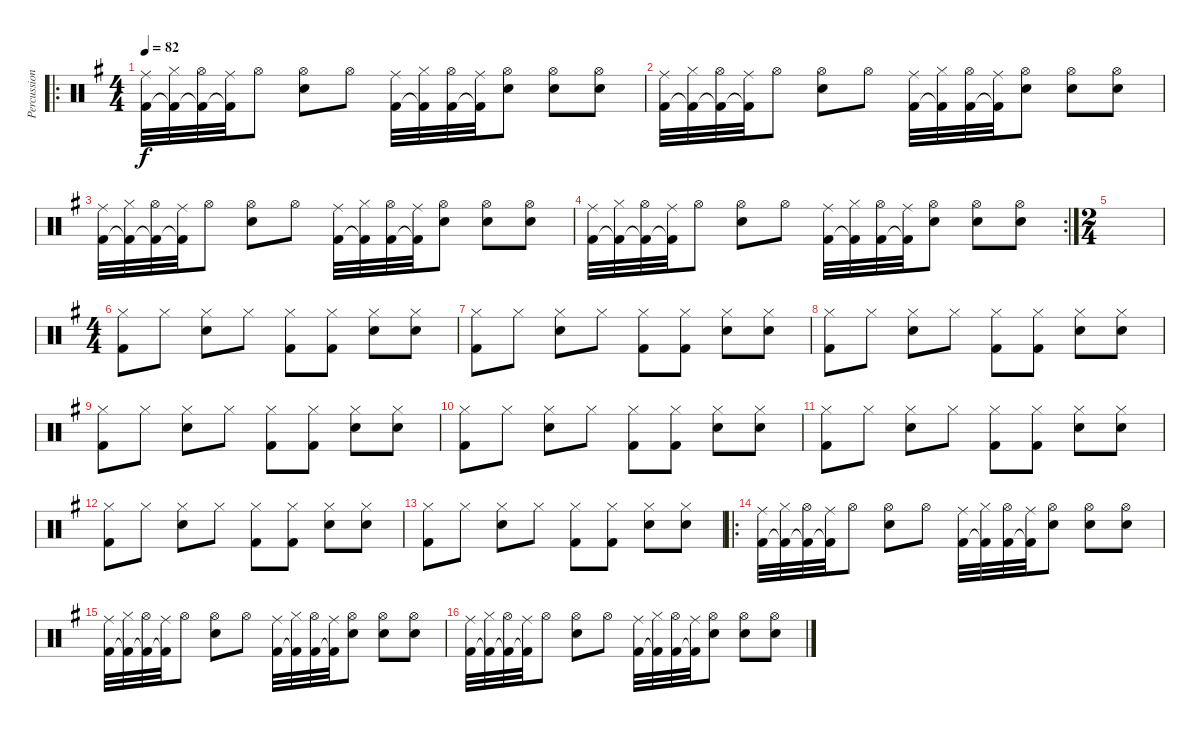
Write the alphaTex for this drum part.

\track ("Percussions" "Percussion") {instrument percussion}
\staff {score}
\articulation defaults
\ro
\ts (4 4)
\tempo 82
\clef neutral
\ks g
("Ride (middle)" "Kick (hit) 2").32{dy f} ("Hi-Hat (closed)" "Kick (hit) 2"{t}).32 ("Hi-Hat (open)" "Kick (hit) 2"{t}).32 ("Ride (middle)" "Kick (hit) 2"{t}).32 "Hi-Hat (open)".8 ("Hi-Hat (open)" "Snare (hit) 2").8 "Hi-Hat (open)".8 ("Ride (middle)" "Kick (hit) 2").32 ("Hi-Hat (closed)" "Kick (hit) 2"{t}).32 ("Hi-Hat (open)" "Kick (hit) 2").32 ("Ride (middle)" "Kick (hit) 2"{t}).32 ("Hi-Hat (open)" "Snare (hit) 2").8 ("Hi-Hat (open)" "Snare (hit) 2").8 ("Hi-Hat (open)" "Snare (hit) 2").8 |
("Ride (middle)" "Kick (hit) 2").32 ("Hi-Hat (closed)" "Kick (hit) 2"{t}).32 ("Hi-Hat (open)" "Kick (hit) 2"{t}).32 ("Ride (middle)" "Kick (hit) 2"{t}).32 "Hi-Hat (open)".8 ("Hi-Hat (open)" "Snare (hit) 2").8 "Hi-Hat (open)".8 ("Ride (middle)" "Kick (hit) 2").32 ("Hi-Hat (closed)" "Kick (hit) 2"{t}).32 ("Hi-Hat (open)" "Kick (hit) 2").32 ("Ride (middle)" "Kick (hit) 2"{t}).32 ("Hi-Hat (open)" "Snare (hit) 2").8 ("Hi-Hat (open)" "Snare (hit) 2").8 ("Hi-Hat (open)" "Snare (hit) 2").8 |
("Ride (middle)" "Kick (hit) 2").32 ("Hi-Hat (closed)" "Kick (hit) 2"{t}).32 ("Hi-Hat (open)" "Kick (hit) 2"{t}).32 ("Ride (middle)" "Kick (hit) 2"{t}).32 "Hi-Hat (open)".8 ("Hi-Hat (open)" "Snare (hit) 2").8 "Hi-Hat (open)".8 ("Ride (middle)" "Kick (hit) 2").32 ("Hi-Hat (closed)" "Kick (hit) 2"{t}).32 ("Hi-Hat (open)" "Kick (hit) 2").32 ("Ride (middle)" "Kick (hit) 2"{t}).32 ("Hi-Hat (open)" "Snare (hit) 2").8 ("Hi-Hat (open)" "Snare (hit) 2").8 ("Hi-Hat (open)" "Snare (hit) 2").8 |
\rc 2
("Ride (middle)" "Kick (hit) 2").32 ("Hi-Hat (closed)" "Kick (hit) 2"{t}).32 ("Hi-Hat (open)" "Kick (hit) 2"{t}).32 ("Ride (middle)" "Kick (hit) 2"{t}).32 "Hi-Hat (open)".8 ("Hi-Hat (open)" "Snare (hit) 2").8 "Hi-Hat (open)".8 ("Ride (middle)" "Kick (hit) 2").32 ("Hi-Hat (closed)" "Kick (hit) 2"{t}).32 ("Hi-Hat (open)" "Kick (hit) 2").32 ("Ride (middle)" "Kick (hit) 2"{t}).32 ("Hi-Hat (open)" "Snare (hit) 2").8 ("Hi-Hat (open)" "Snare (hit) 2").8 ("Hi-Hat (open)" "Snare (hit) 2").8 |
\ts (2 4)
|
\ts (4 4)
("Hi-Hat (closed)" "Kick (hit) 2").8 "Hi-Hat (closed)".8 ("Hi-Hat (closed)" "Snare (hit) 2").8 "Hi-Hat (closed)".8 ("Hi-Hat (closed)" "Kick (hit) 2").8 ("Hi-Hat (closed)" "Kick (hit) 2").8 ("Hi-Hat (closed)" "Snare (hit) 2").8 ("Hi-Hat (closed)" "Snare (hit) 2").8 |
("Hi-Hat (closed)" "Kick (hit) 2").8 "Hi-Hat (closed)".8 ("Hi-Hat (closed)" "Snare (hit) 2").8 "Hi-Hat (closed)".8 ("Hi-Hat (closed)" "Kick (hit) 2").8 ("Hi-Hat (closed)" "Kick (hit) 2").8 ("Hi-Hat (closed)" "Snare (hit) 2").8 ("Hi-Hat (closed)" "Snare (hit) 2").8 |
("Hi-Hat (closed)" "Kick (hit) 2").8 "Hi-Hat (closed)".8 ("Hi-Hat (closed)" "Snare (hit) 2").8 "Hi-Hat (closed)".8 ("Hi-Hat (closed)" "Kick (hit) 2").8 ("Hi-Hat (closed)" "Kick (hit) 2").8 ("Hi-Hat (closed)" "Snare (hit) 2").8 ("Hi-Hat (closed)" "Snare (hit) 2").8 |
("Hi-Hat (closed)" "Kick (hit) 2").8 "Hi-Hat (closed)".8 ("Hi-Hat (closed)" "Snare (hit) 2").8 "Hi-Hat (closed)".8 ("Hi-Hat (closed)" "Kick (hit) 2").8 ("Hi-Hat (closed)" "Kick (hit) 2").8 ("Hi-Hat (closed)" "Snare (hit) 2").8 ("Hi-Hat (closed)" "Snare (hit) 2").8 |
("Hi-Hat (closed)" "Kick (hit) 2").8 "Hi-Hat (closed)".8 ("Hi-Hat (closed)" "Snare (hit) 2").8 "Hi-Hat (closed)".8 ("Hi-Hat (closed)" "Kick (hit) 2").8 ("Hi-Hat (closed)" "Kick (hit) 2").8 ("Hi-Hat (closed)" "Snare (hit) 2").8 ("Hi-Hat (closed)" "Snare (hit) 2").8 |
("Hi-Hat (closed)" "Kick (hit) 2").8 "Hi-Hat (closed)".8 ("Hi-Hat (closed)" "Snare (hit) 2").8 "Hi-Hat (closed)".8 ("Hi-Hat (closed)" "Kick (hit) 2").8 ("Hi-Hat (closed)" "Kick (hit) 2").8 ("Hi-Hat (closed)" "Snare (hit) 2").8 ("Hi-Hat (closed)" "Snare (hit) 2").8 |
("Hi-Hat (closed)" "Kick (hit) 2").8 "Hi-Hat (closed)".8 ("Hi-Hat (closed)" "Snare (hit) 2").8 "Hi-Hat (closed)".8 ("Hi-Hat (closed)" "Kick (hit) 2").8 ("Hi-Hat (closed)" "Kick (hit) 2").8 ("Hi-Hat (closed)" "Snare (hit) 2").8 ("Hi-Hat (closed)" "Snare (hit) 2").8 |
("Hi-Hat (closed)" "Kick (hit) 2").8 "Hi-Hat (closed)".8 ("Hi-Hat (closed)" "Snare (hit) 2").8 "Hi-Hat (closed)".8 ("Hi-Hat (closed)" "Kick (hit) 2").8 ("Hi-Hat (closed)" "Kick (hit) 2").8 ("Hi-Hat (closed)" "Snare (hit) 2").8 ("Hi-Hat (closed)" "Snare (hit) 2").8 |
\ro
("Ride (middle)" "Kick (hit) 2").32 ("Hi-Hat (closed)" "Kick (hit) 2"{t}).32 ("Hi-Hat (open)" "Kick (hit) 2"{t}).32 ("Ride (middle)" "Kick (hit) 2"{t}).32 "Hi-Hat (open)".8 ("Hi-Hat (open)" "Snare (hit) 2").8 "Hi-Hat (open)".8 ("Ride (middle)" "Kick (hit) 2").32 ("Hi-Hat (closed)" "Kick (hit) 2"{t}).32 ("Hi-Hat (open)" "Kick (hit) 2").32 ("Ride (middle)" "Kick (hit) 2"{t}).32 ("Hi-Hat (open)" "Snare (hit) 2").8 ("Hi-Hat (open)" "Snare (hit) 2").8 ("Hi-Hat (open)" "Snare (hit) 2").8 |
("Ride (middle)" "Kick (hit) 2").32 ("Hi-Hat (closed)" "Kick (hit) 2"{t}).32 ("Hi-Hat (open)" "Kick (hit) 2"{t}).32 ("Ride (middle)" "Kick (hit) 2"{t}).32 "Hi-Hat (open)".8 ("Hi-Hat (open)" "Snare (hit) 2").8 "Hi-Hat (open)".8 ("Ride (middle)" "Kick (hit) 2").32 ("Hi-Hat (closed)" "Kick (hit) 2"{t}).32 ("Hi-Hat (open)" "Kick (hit) 2").32 ("Ride (middle)" "Kick (hit) 2"{t}).32 ("Hi-Hat (open)" "Snare (hit) 2").8 ("Hi-Hat (open)" "Snare (hit) 2").8 ("Hi-Hat (open)" "Snare (hit) 2").8 |
("Ride (middle)" "Kick (hit) 2").32 ("Hi-Hat (closed)" "Kick (hit) 2"{t}).32 ("Hi-Hat (open)" "Kick (hit) 2"{t}).32 ("Ride (middle)" "Kick (hit) 2"{t}).32 "Hi-Hat (open)".8 ("Hi-Hat (open)" "Snare (hit) 2").8 "Hi-Hat (open)".8 ("Ride (middle)" "Kick (hit) 2").32 ("Hi-Hat (closed)" "Kick (hit) 2"{t}).32 ("Hi-Hat (open)" "Kick (hit) 2").32 ("Ride (middle)" "Kick (hit) 2"{t}).32 ("Hi-Hat (open)" "Snare (hit) 2").8 ("Hi-Hat (open)" "Snare (hit) 2").8 ("Hi-Hat (open)" "Snare (hit) 2").8
